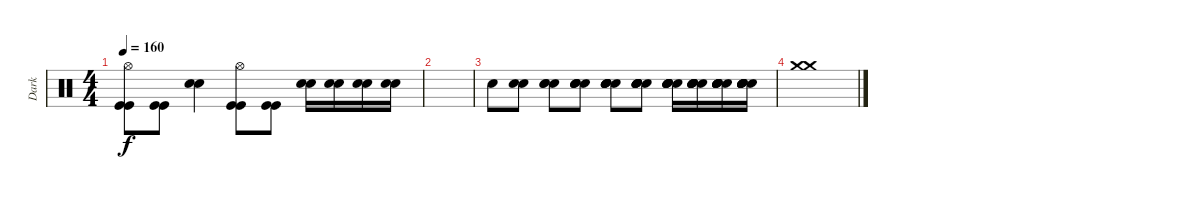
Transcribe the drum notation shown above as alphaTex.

\track ("Dark" "Dark") {instrument percussion}
\staff {score}
\articulation defaults
\ts (4 4)
\tempo 160
\clef neutral
\ks c
("Hi-Hat (open)" "Kick (hit)" "Kick (hit)").8{dy f} ("Kick (hit)" "Kick (hit)").8 ("Snare (hit) 2" "Snare (hit) 2").4 ("Hi-Hat (open)" "Kick (hit)" "Kick (hit)").8 ("Kick (hit)" "Kick (hit)").8 ("Snare (hit) 2" "Snare (hit) 2").16 ("Snare (hit) 2" "Snare (hit) 2").16 ("Snare (hit) 2" "Snare (hit) 2").16 ("Snare (hit) 2" "Snare (hit) 2").16 |
|
"Snare (hit) 2".8 ("Snare (hit) 2" "Snare (hit) 2").8 ("Snare (hit) 2" "Snare (hit) 2" "Snare (hit) 2").8 ("Snare (hit) 2" "Snare (hit) 2" "Snare (hit) 2" "Snare (hit) 2").8 ("Snare (hit) 2" "Snare (hit) 2" "Snare (hit) 2" "Snare (hit) 2" "Snare (hit) 2").8 ("Snare (hit) 2" "Snare (hit) 2" "Snare (hit) 2" "Snare (hit) 2" "Snare (hit) 2" "Snare (hit) 2").8 ("Snare (hit) 2" "Snare (hit) 2" "Snare (hit) 2" "Snare (hit) 2" "Snare (hit) 2" "Snare (hit) 2").16 ("Snare (hit) 2" "Snare (hit) 2" "Snare (hit) 2" "Snare (hit) 2" "Snare (hit) 2" "Snare (hit) 2").16 ("Snare (hit) 2" "Snare (hit) 2" "Snare (hit) 2" "Snare (hit) 2" "Snare (hit) 2" "Snare (hit) 2").16 ("Snare (hit) 2" "Snare (hit) 2" "Snare (hit) 2" "Snare (hit) 2" "Snare (hit) 2" "Snare (hit) 2").16 |
("Crash medium (hit)" "Crash medium (hit)").1
